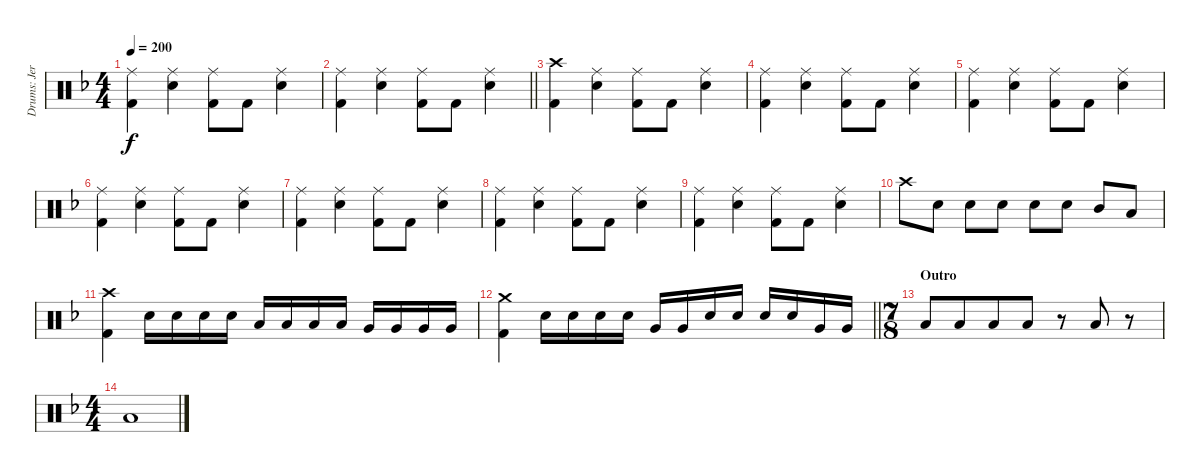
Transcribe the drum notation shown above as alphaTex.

\track ("Drums: Jere Luokkamäki" "Drums: Jer") {instrument percussion}
\staff {score}
\articulation defaults
\ts (4 4)
\tempo 200
\clef neutral
\ks dminor
("Ride (middle)" "Kick (hit) 2").4{dy f} ("Ride (middle)" "Electric Snare (hit)").4 ("Ride (middle)" "Kick (hit) 2").8 "Kick (hit) 2".8 ("Ride (middle)" "Electric Snare (hit)").4 |
\barLineRight lightlight
("Ride (middle)" "Kick (hit) 2").4 ("Ride (middle)" "Electric Snare (hit)").4 ("Ride (middle)" "Kick (hit) 2").8 "Kick (hit) 2".8 ("Ride (middle)" "Electric Snare (hit)").4 |
("Crash high (hit)" "Kick (hit) 2").4 ("Ride (middle)" "Electric Snare (hit)").4 ("Ride (middle)" "Kick (hit) 2").8 "Kick (hit) 2".8 ("Ride (middle)" "Electric Snare (hit)").4 |
("Ride (middle)" "Kick (hit) 2").4 ("Ride (middle)" "Electric Snare (hit)").4 ("Ride (middle)" "Kick (hit) 2").8 "Kick (hit) 2".8 ("Ride (middle)" "Electric Snare (hit)").4 |
("Ride (middle)" "Kick (hit) 2").4 ("Ride (middle)" "Electric Snare (hit)").4 ("Ride (middle)" "Kick (hit) 2").8 "Kick (hit) 2".8 ("Ride (middle)" "Electric Snare (hit)").4 |
("Ride (middle)" "Kick (hit) 2").4 ("Ride (middle)" "Electric Snare (hit)").4 ("Ride (middle)" "Kick (hit) 2").8 "Kick (hit) 2".8 ("Ride (middle)" "Electric Snare (hit)").4 |
("Ride (middle)" "Kick (hit) 2").4 ("Ride (middle)" "Electric Snare (hit)").4 ("Ride (middle)" "Kick (hit) 2").8 "Kick (hit) 2".8 ("Ride (middle)" "Electric Snare (hit)").4 |
("Ride (middle)" "Kick (hit) 2").4 ("Ride (middle)" "Electric Snare (hit)").4 ("Ride (middle)" "Kick (hit) 2").8 "Kick (hit) 2".8 ("Ride (middle)" "Electric Snare (hit)").4 |
("Ride (middle)" "Kick (hit) 2").4 ("Ride (middle)" "Electric Snare (hit)").4 ("Ride (middle)" "Kick (hit) 2").8 "Kick (hit) 2".8 ("Ride (middle)" "Electric Snare (hit)").4 |
"Crash high (hit)".8 "Electric Snare (hit)".8 "Electric Snare (hit)".8 "Electric Snare (hit)".8 "Electric Snare (hit)".8 "Electric Snare (hit)".8 "Mid Tom (hit)".8 "Low Tom (hit)".8 |
("Crash high (hit)" "Kick (hit) 2").4 "Electric Snare (hit)".16 "Electric Snare (hit)".16 "Electric Snare (hit)".16 "Electric Snare (hit)".16 "Low Tom (hit)".16 "Low Tom (hit)".16 "Low Tom (hit)".16 "Low Tom (hit)".16 "Very Low Tom (hit)".16 "Very Low Tom (hit)".16 "Very Low Tom (hit)".16 "Very Low Tom (hit)".16 |
\barLineRight lightlight
("Crash medium (hit)" "Kick (hit) 2").4 "Electric Snare (hit)".16 "Electric Snare (hit)".16 "Electric Snare (hit)".16 "Electric Snare (hit)".16 "Very Low Tom (hit)".16 "Very Low Tom (hit)".16 "Electric Snare (hit)".16 "Electric Snare (hit)".16 "Electric Snare (hit)".16 "Electric Snare (hit)".16 "Very Low Tom (hit)".16 "Very Low Tom (hit)".16 |
\ts (7 8)
\section ("" "Outro")
"Low Tom (hit)".8 "Low Tom (hit)".8 "Low Tom (hit)".8 "Low Tom (hit)".8 r.8 "Low Tom (hit)".8 r.8 |
\ts (4 4)
"Low Tom (hit)".1
